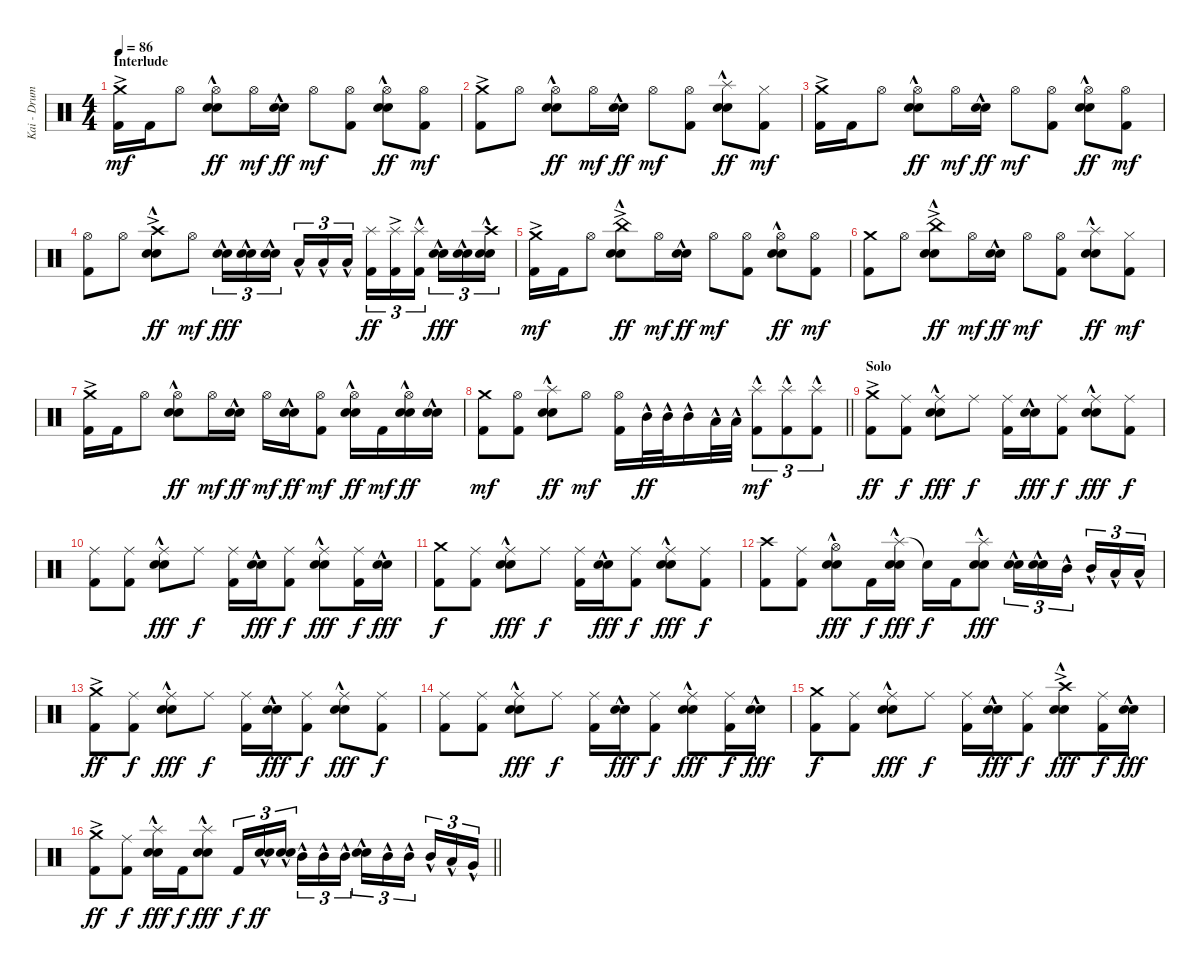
\track ("Kai - Drums" "Kai - Drum") {instrument percussion}
\staff {score}
\articulation defaults
\ts (4 4)
\section ("" "Interlude")
\tempo 86
\clef neutral
\ks c
("Crash medium (hit)"{ac} "Kick (hit) 2").16{dy mf} "Kick (hit) 2".16 "Hi-Hat (open)".8 ("Hi-Hat (open)" "Electric Snare (hit)"{hac} "Snare (hit) 2"{hac}).8{dy ff} "Hi-Hat (open)".16{dy mf} ("Electric Snare (hit)"{hac} "Snare (hit) 2"{hac}).16{dy ff} "Hi-Hat (open)".8{dy mf} ("Hi-Hat (open)" "Kick (hit) 2").8 ("Hi-Hat (open)" "Electric Snare (hit)"{hac} "Snare (hit) 2"{hac}).8{dy ff} ("Hi-Hat (open)" "Kick (hit) 2").8{dy mf} |
("Crash medium (hit)"{ac} "Kick (hit) 2").8 "Hi-Hat (open)".8 ("Hi-Hat (open)" "Electric Snare (hit)"{hac} "Snare (hit) 2"{hac}).8{dy ff} "Hi-Hat (open)".16{dy mf} ("Electric Snare (hit)"{hac} "Snare (hit) 2"{hac}).16{dy ff} "Hi-Hat (open)".8{dy mf} ("Hi-Hat (open)" "Kick (hit) 2").8 ("Splash (hit)"{hac} "Electric Snare (hit)"{hac} "Snare (hit) 2"{hac}).8{dy ff} ("Hi-Hat (closed)" "Kick (hit) 2").8{dy mf} |
("Crash medium (hit)"{ac} "Kick (hit) 2").16 "Kick (hit) 2".16 "Hi-Hat (open)".8 ("Hi-Hat (open)" "Electric Snare (hit)"{hac} "Snare (hit) 2"{hac}).8{dy ff} "Hi-Hat (open)".16{dy mf} ("Electric Snare (hit)"{hac} "Snare (hit) 2"{hac}).16{dy ff} "Hi-Hat (open)".8{dy mf} ("Hi-Hat (open)" "Kick (hit) 2").8 ("Hi-Hat (open)" "Electric Snare (hit)"{hac} "Snare (hit) 2"{hac}).8{dy ff} ("Hi-Hat (open)" "Kick (hit) 2").8{dy mf} |
("Hi-Hat (open)" "Kick (hit) 2").8 "Hi-Hat (open)".8 ("Crash high (hit)"{ac} "Electric Snare (hit)"{hac} "Snare (hit) 2"{hac}).8{dy ff} "Hi-Hat (open)".8{dy mf} ("Electric Snare (hit)"{hac} "Snare (hit) 2"{hac}).16{tu (3 2) dy fff} ("Electric Snare (hit)"{hac} "Snare (hit) 2"{hac}).16{tu (3 2)} ("Electric Snare (hit)"{hac} "Snare (hit) 2"{hac}).16{tu (3 2) beam splitsecondary} "Low Tom (hit)"{hac}.16{tu (3 2)} "Low Tom (hit)"{hac}.16{tu (3 2)} "Low Tom (hit)"{hac}.16{tu (3 2)} ("Splash (hit)" "Kick (hit) 2").16{tu (3 2) dy ff} ("Splash (hit)"{ac} "Kick (hit) 2").16{tu (3 2)} ("Splash (hit)"{hac} "Kick (hit) 2").16{tu (3 2) beam splitsecondary} ("Electric Snare (hit)"{hac} "Snare (hit) 2"{hac}).16{tu (3 2) dy fff} ("Electric Snare (hit)"{hac} "Snare (hit) 2"{hac}).16{tu (3 2)} ("Crash high (hit)" "Electric Snare (hit)"{hac} "Snare (hit) 2"{hac}).16{tu (3 2)} |
("Crash medium (hit)"{ac} "Kick (hit) 2").16{dy mf} "Kick (hit) 2".16 "Hi-Hat (open)".8 ("China (hit)"{ac} "Electric Snare (hit)"{hac} "Snare (hit) 2"{hac}).8{dy ff} "Hi-Hat (open)".16{dy mf} ("Electric Snare (hit)"{hac} "Snare (hit) 2"{hac}).16{dy ff} "Hi-Hat (open)".8{dy mf} ("Hi-Hat (open)" "Kick (hit) 2").8 ("Hi-Hat (open)" "Electric Snare (hit)"{hac} "Snare (hit) 2"{hac}).8{dy ff} ("Hi-Hat (open)" "Kick (hit) 2").8{dy mf} |
("Crash medium (hit)" "Kick (hit) 2").8 "Hi-Hat (open)".8 ("China (hit)"{ac} "Electric Snare (hit)"{hac} "Snare (hit) 2"{hac}).8{dy ff} "Hi-Hat (open)".16{dy mf} ("Electric Snare (hit)"{hac} "Snare (hit) 2"{hac}).16{dy ff} "Hi-Hat (open)".8{dy mf} ("Hi-Hat (open)" "Kick (hit) 2").8 ("Splash (hit)"{hac} "Electric Snare (hit)"{hac} "Snare (hit) 2"{hac}).8{dy ff} ("Hi-Hat (closed)" "Kick (hit) 2").8{dy mf} |
("Crash medium (hit)"{ac} "Kick (hit) 2").16 "Kick (hit) 2".16 "Hi-Hat (open)".8 ("Hi-Hat (open)" "Electric Snare (hit)"{hac} "Snare (hit) 2"{hac}).8{dy ff} "Hi-Hat (open)".16{dy mf} ("Electric Snare (hit)"{hac} "Snare (hit) 2"{hac}).16{dy ff} "Hi-Hat (open)".16{dy mf} ("Electric Snare (hit)"{hac} "Snare (hit) 2"{hac}).16{dy ff} ("Hi-Hat (open)" "Kick (hit) 2").8{dy mf} ("Hi-Hat (open)" "Electric Snare (hit)"{hac} "Snare (hit) 2"{hac}).16{dy ff} "Kick (hit) 2".16{dy mf} ("Hi-Hat (open)" "Electric Snare (hit)"{hac} "Snare (hit) 2"{hac}).16{dy ff} ("Electric Snare (hit)"{hac} "Snare (hit) 2"{hac}).16 |
\barLineRight lightlight
("Crash medium (hit)" "Kick (hit) 2").8{dy mf} ("Hi-Hat (open)" "Kick (hit) 2").8 ("Splash (hit)"{hac} "Electric Snare (hit)"{hac} "Snare (hit) 2"{hac}).8{dy ff} "Hi-Hat (open)".8{dy mf} ("Hi-Hat (open)" "Kick (hit) 2").16 "Mid Tom (hit)"{hac}.32{dy ff} "Mid Tom (hit)"{hac}.32 "Mid Tom (hit)"{hac}.16 "Low Tom (hit)"{hac}.32 "Low Tom (hit)"{hac}.32 ("Splash (hit)"{hac} "Kick (hit) 2").8{tu (3 2) dy mf} ("Splash (hit)"{hac} "Kick (hit) 2").8{tu (3 2)} ("Splash (hit)"{hac} "Kick (hit) 2").8{tu (3 2)} |
\section ("" "Solo")
("Crash medium (hit)"{ac} "Kick (hit) 2").8{dy ff} ("Ride (middle)" "Kick (hit) 2").8{dy f} ("Ride (middle)" "Electric Snare (hit)"{hac} "Snare (hit) 2"{hac}).8{dy fff} "Ride (middle)".8{dy f} ("Ride (middle)" "Kick (hit) 2").16 ("Electric Snare (hit)"{hac} "Snare (hit) 2"{hac}).16{dy fff} ("Ride (middle)" "Kick (hit) 2").8{dy f} ("Ride (middle)" "Electric Snare (hit)"{hac} "Snare (hit) 2"{hac}).8{dy fff} ("Ride (middle)" "Kick (hit) 2").8{dy f} |
("Ride (middle)" "Kick (hit) 2").8 ("Ride (middle)" "Kick (hit) 2").8 ("Ride (middle)" "Electric Snare (hit)"{hac} "Snare (hit) 2"{hac}).8{dy fff} "Ride (middle)".8{dy f} ("Ride (middle)" "Kick (hit) 2").16 ("Electric Snare (hit)"{hac} "Snare (hit) 2"{hac}).16{dy fff} ("Ride (middle)" "Kick (hit) 2").8{dy f} ("Ride (middle)" "Electric Snare (hit)"{hac} "Snare (hit) 2"{hac}).8{dy fff} ("Ride (middle)" "Kick (hit) 2").16{dy f} ("Electric Snare (hit)"{hac} "Snare (hit) 2"{hac}).16{dy fff} |
("Crash medium (hit)" "Kick (hit) 2").8{dy f} ("Ride (middle)" "Kick (hit) 2").8 ("Ride (middle)" "Electric Snare (hit)"{hac} "Snare (hit) 2"{hac}).8{dy fff} "Ride (middle)".8{dy f} ("Ride (middle)" "Kick (hit) 2").16 ("Electric Snare (hit)"{hac} "Snare (hit) 2"{hac}).16{dy fff} ("Ride (middle)" "Kick (hit) 2").8{dy f} ("Ride (middle)" "Electric Snare (hit)"{hac} "Snare (hit) 2"{hac}).8{dy fff} ("Ride (middle)" "Kick (hit) 2").8{dy f} |
("Crash high (hit)" "Kick (hit) 2").8 ("Ride (middle)" "Kick (hit) 2").8 ("Hi-Hat (open)" "Electric Snare (hit)"{hac} "Snare (hit) 2"{hac}).8{dy fff} "Kick (hit) 2".16{dy f} ("Splash (hit)"{hac} "Electric Snare (hit)"{hac} "Snare (hit) 2"{hac}).16{dy fff} "Snare (hit)"{t}.16{dy f} "Kick (hit) 2".16 ("Splash (hit)"{hac} "Electric Snare (hit)"{hac} "Snare (hit) 2"{hac}).8{dy fff} ("Electric Snare (hit)"{hac} "Snare (hit) 2").16{tu (3 2)} ("Electric Snare (hit)"{hac} "Snare (hit) 2").16{tu (3 2)} "Mid Tom (hit)"{hac}.16{tu (3 2) beam splitsecondary} "Mid Tom (hit)"{hac}.16{tu (3 2)} "Low Tom (hit)"{hac}.16{tu (3 2)} "Low Tom (hit)"{hac}.16{tu (3 2)} |
("Crash medium (hit)"{ac} "Kick (hit) 2").8{dy ff} ("Ride (middle)" "Kick (hit) 2").8{dy f} ("Ride (middle)" "Electric Snare (hit)"{hac} "Snare (hit) 2"{hac}).8{dy fff} "Ride (middle)".8{dy f} ("Ride (middle)" "Kick (hit) 2").16 ("Electric Snare (hit)"{hac} "Snare (hit) 2"{hac}).16{dy fff} ("Ride (middle)" "Kick (hit) 2").8{dy f} ("Ride (middle)" "Electric Snare (hit)"{hac} "Snare (hit) 2"{hac}).8{dy fff} ("Ride (middle)" "Kick (hit) 2").8{dy f} |
("Ride (middle)" "Kick (hit) 2").8 ("Ride (middle)" "Kick (hit) 2").8 ("Ride (middle)" "Electric Snare (hit)"{hac} "Snare (hit) 2"{hac}).8{dy fff} "Ride (middle)".8{dy f} ("Ride (middle)" "Kick (hit) 2").16 ("Electric Snare (hit)"{hac} "Snare (hit) 2"{hac}).16{dy fff} ("Ride (middle)" "Kick (hit) 2").8{dy f} ("Ride (middle)" "Electric Snare (hit)"{hac} "Snare (hit) 2"{hac}).8{dy fff} ("Ride (middle)" "Kick (hit) 2").16{dy f} ("Electric Snare (hit)"{hac} "Snare (hit) 2"{hac}).16{dy fff} |
("Crash medium (hit)" "Kick (hit) 2").8{dy f} ("Ride (middle)" "Kick (hit) 2").8 ("Ride (middle)" "Electric Snare (hit)"{hac} "Snare (hit) 2"{hac}).8{dy fff} "Ride (middle)".8{dy f} ("Ride (middle)" "Kick (hit) 2").16 ("Electric Snare (hit)"{hac} "Snare (hit) 2"{hac}).16{dy fff} ("Ride (middle)" "Kick (hit) 2").8{dy f} ("Crash high (hit)"{ac} "Electric Snare (hit)"{hac} "Snare (hit) 2"{hac}).8{dy fff} ("Ride (middle)" "Kick (hit) 2").16{dy f} ("Electric Snare (hit)"{hac} "Snare (hit) 2"{hac}).16{dy fff} |
\barLineRight lightlight
("Crash medium (hit)"{ac} "Kick (hit) 2").8{dy ff} ("Ride (middle)" "Kick (hit) 2").8{dy f} ("Splash (hit)"{hac} "Electric Snare (hit)"{hac} "Snare (hit) 2"{hac}).16{dy fff} "Kick (hit) 2".16{dy f} ("Splash (hit)"{hac} "Electric Snare (hit)"{hac} "Snare (hit) 2"{hac}).8{dy fff} "Kick (hit) 2".16{tu (3 2) dy f} ("Electric Snare (hit)"{hac} "Snare (hit) 2"{hac}).16{tu (3 2) dy ff} ("Electric Snare (hit)"{hac} "Snare (hit) 2"{hac}).16{tu (3 2) beam splitsecondary} "Mid Tom (hit)"{hac}.16{tu (3 2)} "Mid Tom (hit)"{hac}.16{tu (3 2)} "Mid Tom (hit)"{hac}.16{tu (3 2)} ("Electric Snare (hit)"{hac} "Snare (hit) 2"{hac}).16{tu (3 2)} "Mid Tom (hit)"{hac}.16{tu (3 2)} "Mid Tom (hit)"{hac}.16{tu (3 2) beam splitsecondary} "Mid Tom (hit)"{hac}.16{tu (3 2)} "Low Tom (hit)"{hac}.16{tu (3 2)} "Very Low Tom (hit)"{hac}.16{tu (3 2)}
